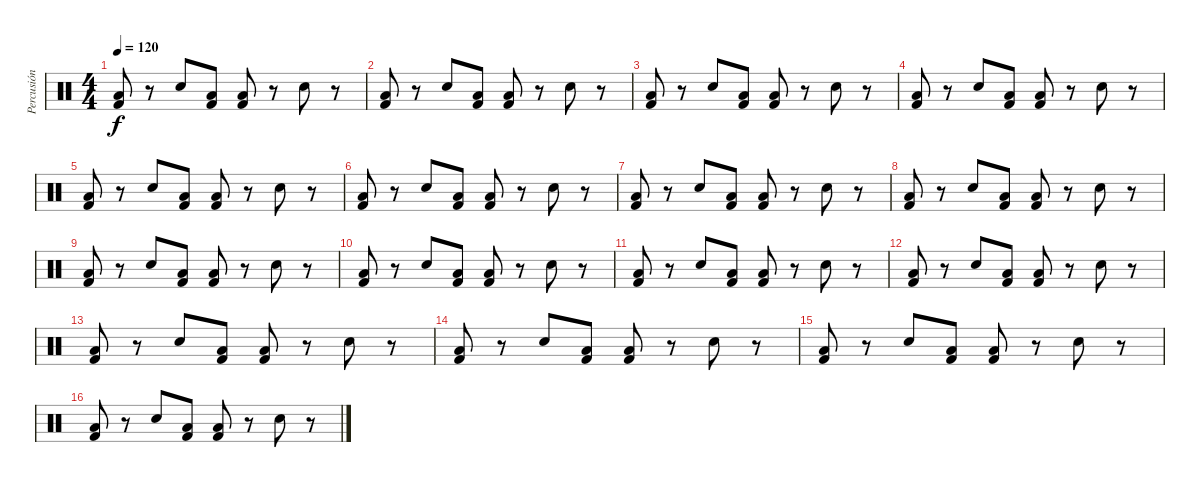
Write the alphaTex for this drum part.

\track ("Percusión" "Percusión") {instrument percussion}
\staff {score}
\articulation defaults
\ts (4 4)
\tempo 120
\clef neutral
\ks c
("Kick (hit) 2" "Low Tom (hit)").8{dy f} r.8 "Snare (hit) 2".8 ("Kick (hit) 2" "Low Tom (hit)").8 ("Kick (hit) 2" "Low Tom (hit)").8 r.8 "Snare (hit) 2".8 r.8 |
("Kick (hit) 2" "Low Tom (hit)").8 r.8 "Snare (hit) 2".8 ("Kick (hit) 2" "Low Tom (hit)").8 ("Kick (hit) 2" "Low Tom (hit)").8 r.8 "Snare (hit) 2".8 r.8 |
("Kick (hit) 2" "Low Tom (hit)").8 r.8 "Snare (hit) 2".8 ("Kick (hit) 2" "Low Tom (hit)").8 ("Kick (hit) 2" "Low Tom (hit)").8 r.8 "Snare (hit) 2".8 r.8 |
("Kick (hit) 2" "Low Tom (hit)").8 r.8 "Snare (hit) 2".8 ("Kick (hit) 2" "Low Tom (hit)").8 ("Kick (hit) 2" "Low Tom (hit)").8 r.8 "Snare (hit) 2".8 r.8 |
("Kick (hit) 2" "Low Tom (hit)").8 r.8 "Snare (hit) 2".8 ("Kick (hit) 2" "Low Tom (hit)").8 ("Kick (hit) 2" "Low Tom (hit)").8 r.8 "Snare (hit) 2".8 r.8 |
("Kick (hit) 2" "Low Tom (hit)").8 r.8 "Snare (hit) 2".8 ("Kick (hit) 2" "Low Tom (hit)").8 ("Kick (hit) 2" "Low Tom (hit)").8 r.8 "Snare (hit) 2".8 r.8 |
("Kick (hit) 2" "Low Tom (hit)").8 r.8 "Snare (hit) 2".8 ("Kick (hit) 2" "Low Tom (hit)").8 ("Kick (hit) 2" "Low Tom (hit)").8 r.8 "Snare (hit) 2".8 r.8 |
("Kick (hit) 2" "Low Tom (hit)").8 r.8 "Snare (hit) 2".8 ("Kick (hit) 2" "Low Tom (hit)").8 ("Kick (hit) 2" "Low Tom (hit)").8 r.8 "Snare (hit) 2".8 r.8 |
("Kick (hit) 2" "Low Tom (hit)").8 r.8 "Snare (hit) 2".8 ("Kick (hit) 2" "Low Tom (hit)").8 ("Kick (hit) 2" "Low Tom (hit)").8 r.8 "Snare (hit) 2".8 r.8 |
("Kick (hit) 2" "Low Tom (hit)").8 r.8 "Snare (hit) 2".8 ("Kick (hit) 2" "Low Tom (hit)").8 ("Kick (hit) 2" "Low Tom (hit)").8 r.8 "Snare (hit) 2".8 r.8 |
("Kick (hit) 2" "Low Tom (hit)").8 r.8 "Snare (hit) 2".8 ("Kick (hit) 2" "Low Tom (hit)").8 ("Kick (hit) 2" "Low Tom (hit)").8 r.8 "Snare (hit) 2".8 r.8 |
("Kick (hit) 2" "Low Tom (hit)").8 r.8 "Snare (hit) 2".8 ("Kick (hit) 2" "Low Tom (hit)").8 ("Kick (hit) 2" "Low Tom (hit)").8 r.8 "Snare (hit) 2".8 r.8 |
("Kick (hit) 2" "Low Tom (hit)").8 r.8 "Snare (hit) 2".8 ("Kick (hit) 2" "Low Tom (hit)").8 ("Kick (hit) 2" "Low Tom (hit)").8 r.8 "Snare (hit) 2".8 r.8 |
("Kick (hit) 2" "Low Tom (hit)").8 r.8 "Snare (hit) 2".8 ("Kick (hit) 2" "Low Tom (hit)").8 ("Kick (hit) 2" "Low Tom (hit)").8 r.8 "Snare (hit) 2".8 r.8 |
("Kick (hit) 2" "Low Tom (hit)").8 r.8 "Snare (hit) 2".8 ("Kick (hit) 2" "Low Tom (hit)").8 ("Kick (hit) 2" "Low Tom (hit)").8 r.8 "Snare (hit) 2".8 r.8 |
("Kick (hit) 2" "Low Tom (hit)").8 r.8 "Snare (hit) 2".8 ("Kick (hit) 2" "Low Tom (hit)").8 ("Kick (hit) 2" "Low Tom (hit)").8 r.8 "Snare (hit) 2".8 r.8
